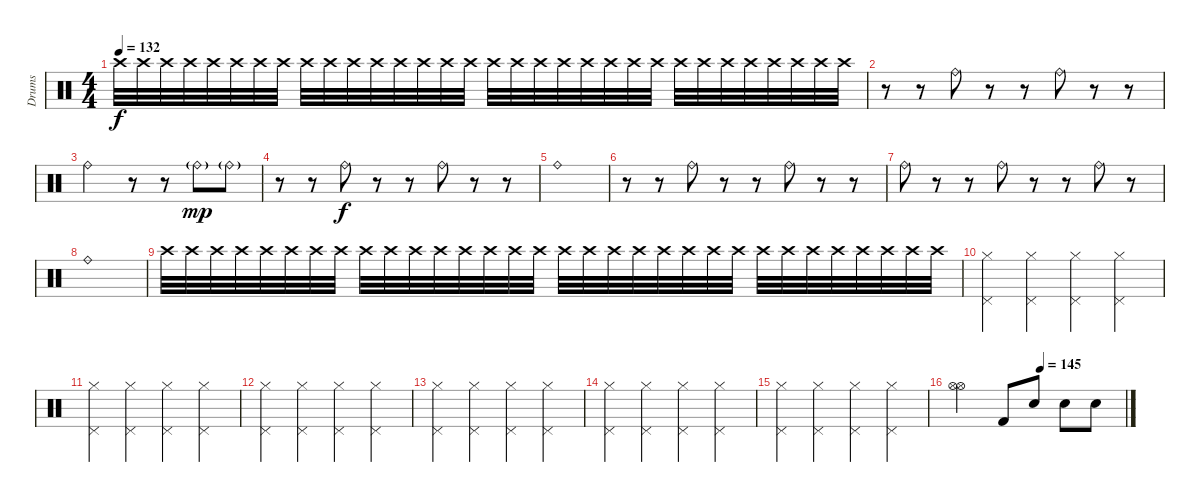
\track ("Drums" "Drums") {instrument percussion}
\staff {score}
\articulation defaults
\ts (4 4)
\tempo 132
\clef neutral
\ks c "Crash high (hit)".32{dy f volume 4 balance 8} "Crash high (hit)".32 "Crash high (hit)".32 "Crash high (hit)".32 "Crash high (hit)".32 "Crash high (hit)".32 "Crash high (hit)".32 "Crash high (hit)".32 "Crash high (hit)".32 "Crash high (hit)".32 "Crash high (hit)".32 "Crash high (hit)".32 "Crash high (hit)".32 "Crash high (hit)".32 "Crash high (hit)".32 "Crash high (hit)".32 "Crash high (hit)".32 "Crash high (hit)".32 "Crash high (hit)".32 "Crash high (hit)".32 "Crash high (hit)".32 "Crash high (hit)".32 "Crash high (hit)".32 "Crash high (hit)".32 "Crash high (hit)".32 "Crash high (hit)".32 "Crash high (hit)".32 "Crash high (hit)".32 "Crash high (hit)".32 "Crash high (hit)".32 "Crash high (hit)".32 "Crash high (hit)".32
|
r.8 r.8 "Ride (bell)".8{volume 10 balance 16} r.8 r.8 "Ride (bell)".8{balance 8} r.8 r.8 |
"Ride (bell)".2{balance 0} r.8 r.8 "Ride (bell)"{g}.8{dy mp} "Ride (bell)"{g}.8 |
r.8 r.8 "Ride (bell)".8{dy f balance 16} r.8 r.8 "Ride (bell)".8{balance 8} r.8 r.8 |
"Ride (bell)".1{balance 0} |
r.8 r.8 "Ride (bell)".8{balance 12} r.8 r.8 "Ride (bell)".8{balance 16} r.8 r.8 |
"Ride (bell)".8{balance 12} r.8 r.8 "Ride (bell)".8{balance 8} r.8 r.8 "Ride (bell)".8{balance 4} r.8 |
"Ride (bell)".1{volume 0 balance 0} |
"Crash high (hit)".32{volume 4 balance 8} "Crash high (hit)".32 "Crash high (hit)".32 "Crash high (hit)".32 "Crash high (hit)".32 "Crash high (hit)".32 "Crash high (hit)".32 "Crash high (hit)".32 "Crash high (hit)".32 "Crash high (hit)".32 "Crash high (hit)".32 "Crash high (hit)".32 "Crash high (hit)".32 "Crash high (hit)".32 "Crash high (hit)".32 "Crash high (hit)".32 "Crash high (hit)".32 "Crash high (hit)".32 "Crash high (hit)".32 "Crash high (hit)".32 "Crash high (hit)".32 "Crash high (hit)".32 "Crash high (hit)".32 "Crash high (hit)".32 "Crash high (hit)".32 "Crash high (hit)".32 "Crash high (hit)".32 "Crash high (hit)".32 "Crash high (hit)".32 "Crash high (hit)".32 "Crash high (hit)".32 "Crash high (hit)".32 |
("Pedal Hi-Hat (hit)" "Hi-Hat (closed)").4{volume 10 balance 8} ("Pedal Hi-Hat (hit)" "Hi-Hat (closed)").4 ("Pedal Hi-Hat (hit)" "Hi-Hat (closed)").4 ("Pedal Hi-Hat (hit)" "Hi-Hat (closed)").4 |
("Pedal Hi-Hat (hit)" "Hi-Hat (closed)").4 ("Pedal Hi-Hat (hit)" "Hi-Hat (closed)").4 ("Pedal Hi-Hat (hit)" "Hi-Hat (closed)").4 ("Pedal Hi-Hat (hit)" "Hi-Hat (closed)").4 |
("Pedal Hi-Hat (hit)" "Hi-Hat (closed)").4 ("Pedal Hi-Hat (hit)" "Hi-Hat (closed)").4 ("Pedal Hi-Hat (hit)" "Hi-Hat (closed)").4 ("Pedal Hi-Hat (hit)" "Hi-Hat (closed)").4 |
("Pedal Hi-Hat (hit)" "Hi-Hat (closed)").4 ("Pedal Hi-Hat (hit)" "Hi-Hat (closed)").4 ("Pedal Hi-Hat (hit)" "Hi-Hat (closed)").4 ("Pedal Hi-Hat (hit)" "Hi-Hat (closed)").4 |
("Pedal Hi-Hat (hit)" "Hi-Hat (closed)").4 ("Pedal Hi-Hat (hit)" "Hi-Hat (closed)").4 ("Pedal Hi-Hat (hit)" "Hi-Hat (closed)").4 ("Pedal Hi-Hat (hit)" "Hi-Hat (closed)").4 |
("Pedal Hi-Hat (hit)" "Hi-Hat (closed)").4 ("Pedal Hi-Hat (hit)" "Hi-Hat (closed)").4 ("Pedal Hi-Hat (hit)" "Hi-Hat (closed)").4 ("Pedal Hi-Hat (hit)" "Hi-Hat (closed)").4 |
\tempo (145 0.5)
("Hi-Hat (open)" "Hi-Hat (open)").2{volume 0} "Kick (hit) 2".8{volume 10} "Snare (hit) 2".8 "Snare (hit) 2".8 "Snare (hit) 2".8
